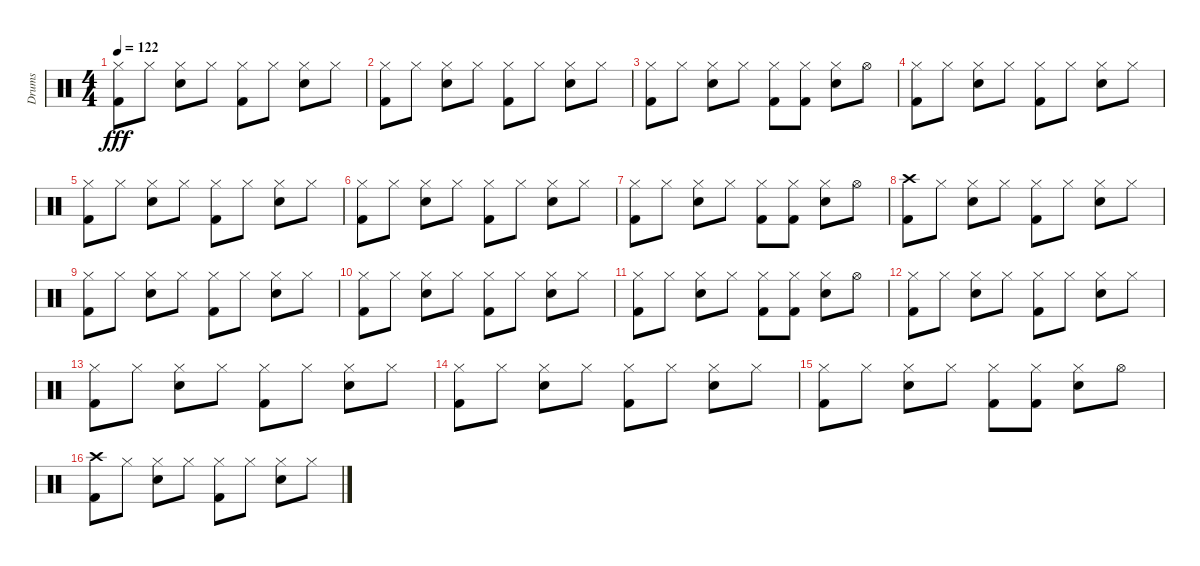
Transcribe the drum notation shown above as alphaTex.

\track ("Drums" "Drums") {instrument percussion}
\staff {score}
\articulation defaults
\ts (4 4)
\tempo 122
\clef neutral
\ks c
("Hi-Hat (closed)" "Kick (hit) 2").8{dy fff} "Hi-Hat (closed)".8 ("Hi-Hat (closed)" "Snare (hit) 2").8 "Hi-Hat (closed)".8 ("Hi-Hat (closed)" "Kick (hit) 2").8 "Hi-Hat (closed)".8 ("Hi-Hat (closed)" "Snare (hit) 2").8 "Hi-Hat (closed)".8 |
("Hi-Hat (closed)" "Kick (hit) 2").8 "Hi-Hat (closed)".8 ("Hi-Hat (closed)" "Snare (hit) 2").8 "Hi-Hat (closed)".8 ("Hi-Hat (closed)" "Kick (hit) 2").8 "Hi-Hat (closed)".8 ("Hi-Hat (closed)" "Snare (hit) 2").8 "Hi-Hat (closed)".8 |
("Hi-Hat (closed)" "Kick (hit) 2").8 "Hi-Hat (closed)".8 ("Hi-Hat (closed)" "Snare (hit) 2").8 "Hi-Hat (closed)".8 ("Hi-Hat (closed)" "Kick (hit) 2").8 ("Hi-Hat (closed)" "Kick (hit) 2").8 ("Hi-Hat (closed)" "Snare (hit) 2").8 "Hi-Hat (open)".8 |
("Hi-Hat (closed)" "Kick (hit) 2").8 "Hi-Hat (closed)".8 ("Hi-Hat (closed)" "Snare (hit) 2").8 "Hi-Hat (closed)".8 ("Hi-Hat (closed)" "Kick (hit) 2").8 "Hi-Hat (closed)".8 ("Hi-Hat (closed)" "Snare (hit) 2").8 "Hi-Hat (closed)".8 |
("Hi-Hat (closed)" "Kick (hit) 2").8 "Hi-Hat (closed)".8 ("Hi-Hat (closed)" "Snare (hit) 2").8 "Hi-Hat (closed)".8 ("Hi-Hat (closed)" "Kick (hit) 2").8 "Hi-Hat (closed)".8 ("Hi-Hat (closed)" "Snare (hit) 2").8 "Hi-Hat (closed)".8 |
("Hi-Hat (closed)" "Kick (hit) 2").8 "Hi-Hat (closed)".8 ("Hi-Hat (closed)" "Snare (hit) 2").8 "Hi-Hat (closed)".8 ("Hi-Hat (closed)" "Kick (hit) 2").8 "Hi-Hat (closed)".8 ("Hi-Hat (closed)" "Snare (hit) 2").8 "Hi-Hat (closed)".8 |
("Hi-Hat (closed)" "Kick (hit) 2").8 "Hi-Hat (closed)".8 ("Hi-Hat (closed)" "Snare (hit) 2").8 "Hi-Hat (closed)".8 ("Hi-Hat (closed)" "Kick (hit) 2").8 ("Hi-Hat (closed)" "Kick (hit) 2").8 ("Hi-Hat (closed)" "Snare (hit) 2").8 "Hi-Hat (open)".8 |
("Crash high (hit)" "Kick (hit) 2").8 "Hi-Hat (closed)".8 ("Hi-Hat (closed)" "Snare (hit) 2").8 "Hi-Hat (closed)".8 ("Hi-Hat (closed)" "Kick (hit) 2").8 "Hi-Hat (closed)".8 ("Hi-Hat (closed)" "Snare (hit) 2").8 "Hi-Hat (closed)".8 |
("Hi-Hat (closed)" "Kick (hit) 2").8 "Hi-Hat (closed)".8 ("Hi-Hat (closed)" "Snare (hit) 2").8 "Hi-Hat (closed)".8 ("Hi-Hat (closed)" "Kick (hit) 2").8 "Hi-Hat (closed)".8 ("Hi-Hat (closed)" "Snare (hit) 2").8 "Hi-Hat (closed)".8 |
("Hi-Hat (closed)" "Kick (hit) 2").8 "Hi-Hat (closed)".8 ("Hi-Hat (closed)" "Snare (hit) 2").8 "Hi-Hat (closed)".8 ("Hi-Hat (closed)" "Kick (hit) 2").8 "Hi-Hat (closed)".8 ("Hi-Hat (closed)" "Snare (hit) 2").8 "Hi-Hat (closed)".8 |
("Hi-Hat (closed)" "Kick (hit) 2").8 "Hi-Hat (closed)".8 ("Hi-Hat (closed)" "Snare (hit) 2").8 "Hi-Hat (closed)".8 ("Hi-Hat (closed)" "Kick (hit) 2").8 ("Hi-Hat (closed)" "Kick (hit) 2").8 ("Hi-Hat (closed)" "Snare (hit) 2").8 "Hi-Hat (open)".8 |
("Hi-Hat (closed)" "Kick (hit) 2").8 "Hi-Hat (closed)".8 ("Hi-Hat (closed)" "Snare (hit) 2").8 "Hi-Hat (closed)".8 ("Hi-Hat (closed)" "Kick (hit) 2").8 "Hi-Hat (closed)".8 ("Hi-Hat (closed)" "Snare (hit) 2").8 "Hi-Hat (closed)".8 |
("Hi-Hat (closed)" "Kick (hit) 2").8 "Hi-Hat (closed)".8 ("Hi-Hat (closed)" "Snare (hit) 2").8 "Hi-Hat (closed)".8 ("Hi-Hat (closed)" "Kick (hit) 2").8 "Hi-Hat (closed)".8 ("Hi-Hat (closed)" "Snare (hit) 2").8 "Hi-Hat (closed)".8 |
("Hi-Hat (closed)" "Kick (hit) 2").8 "Hi-Hat (closed)".8 ("Hi-Hat (closed)" "Snare (hit) 2").8 "Hi-Hat (closed)".8 ("Hi-Hat (closed)" "Kick (hit) 2").8 "Hi-Hat (closed)".8 ("Hi-Hat (closed)" "Snare (hit) 2").8 "Hi-Hat (closed)".8 |
("Hi-Hat (closed)" "Kick (hit) 2").8 "Hi-Hat (closed)".8 ("Hi-Hat (closed)" "Snare (hit) 2").8 "Hi-Hat (closed)".8 ("Hi-Hat (closed)" "Kick (hit) 2").8 ("Hi-Hat (closed)" "Kick (hit) 2").8 ("Hi-Hat (closed)" "Snare (hit) 2").8 "Hi-Hat (open)".8 |
("Crash high (hit)" "Kick (hit) 2").8 "Hi-Hat (closed)".8 ("Hi-Hat (closed)" "Snare (hit) 2").8 "Hi-Hat (closed)".8 ("Hi-Hat (closed)" "Kick (hit) 2").8 "Hi-Hat (closed)".8 ("Hi-Hat (closed)" "Snare (hit) 2").8 "Hi-Hat (closed)".8
